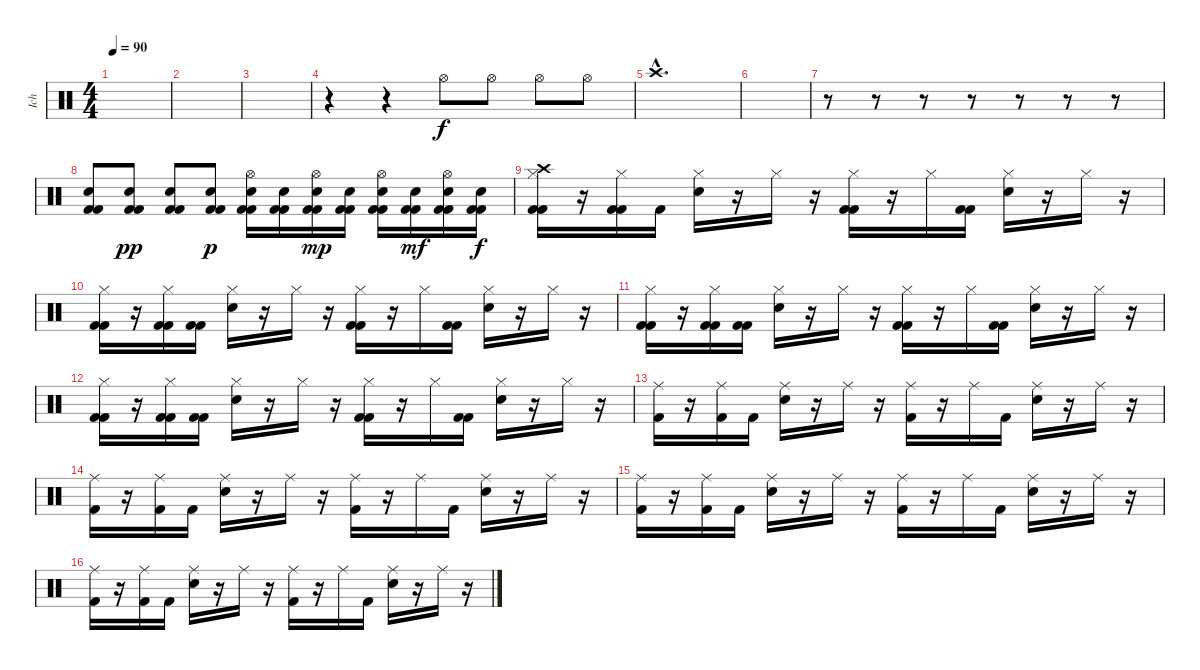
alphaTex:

\track ("Ich" "Ich") {instrument percussion}
\staff {score}
\articulation defaults
\ts (4 4)
\tempo 90
\clef neutral
\ks c
|
|
|
r.4 r.4 "Hi-Hat (open)".8 "Hi-Hat (open)".8 "Hi-Hat (open)".8 "Hi-Hat (open)".8 |
"Crash high (hit)"{hac}.1{d} |
|
r.8 r.8 r.8 r.8 r.8 r.8 r.8 |
("Snare (hit) 2" "Kick (hit) 2" "Kick (hit) 2").8{dy f} ("Snare (hit) 2" "Kick (hit) 2" "Kick (hit) 2").8{dy pp} ("Snare (hit) 2" "Kick (hit) 2" "Kick (hit) 2").8 ("Snare (hit) 2" "Kick (hit) 2" "Kick (hit) 2").8{dy p} ("Hi-Hat (open)" "Snare (hit) 2" "Kick (hit) 2" "Kick (hit) 2").16 ("Snare (hit) 2" "Kick (hit) 2" "Kick (hit) 2").16 ("Hi-Hat (open)" "Snare (hit) 2" "Kick (hit) 2" "Kick (hit) 2").16{dy mp} ("Snare (hit) 2" "Kick (hit) 2" "Kick (hit) 2").16 ("Hi-Hat (open)" "Snare (hit) 2" "Kick (hit) 2" "Kick (hit) 2").16 ("Snare (hit) 2" "Kick (hit) 2" "Kick (hit) 2").16{dy mf} ("Hi-Hat (open)" "Snare (hit) 2" "Kick (hit) 2" "Kick (hit) 2").16 ("Snare (hit) 2" "Kick (hit) 2" "Kick (hit) 2").16{dy f} |
("Hi-Hat (closed)" "Crash high (hit)" "Kick (hit) 2" "Kick (hit) 2").16 r.16 ("Hi-Hat (closed)" "Kick (hit) 2" "Kick (hit) 2").16 "Kick (hit) 2".16 ("Hi-Hat (closed)" "Snare (hit) 2").16 r.16 "Hi-Hat (closed)".16 r.16 ("Hi-Hat (closed)" "Kick (hit) 2" "Kick (hit) 2").16 r.16 "Hi-Hat (closed)".16 ("Kick (hit) 2" "Kick (hit) 2").16 ("Hi-Hat (closed)" "Snare (hit) 2").16 r.16 "Hi-Hat (closed)".16 r.16 |
("Hi-Hat (closed)" "Kick (hit) 2" "Kick (hit) 2").16 r.16 ("Hi-Hat (closed)" "Kick (hit) 2" "Kick (hit) 2").16 ("Kick (hit) 2" "Kick (hit) 2").16 ("Hi-Hat (closed)" "Snare (hit) 2").16 r.16 "Hi-Hat (closed)".16 r.16 ("Hi-Hat (closed)" "Kick (hit) 2" "Kick (hit) 2").16 r.16 "Hi-Hat (closed)".16 ("Kick (hit) 2" "Kick (hit) 2").16 ("Hi-Hat (closed)" "Snare (hit) 2").16 r.16 "Hi-Hat (closed)".16 r.16 |
("Hi-Hat (closed)" "Kick (hit) 2" "Kick (hit) 2").16 r.16 ("Hi-Hat (closed)" "Kick (hit) 2" "Kick (hit) 2").16 ("Kick (hit) 2" "Kick (hit) 2").16 ("Hi-Hat (closed)" "Snare (hit) 2").16 r.16 "Hi-Hat (closed)".16 r.16 ("Hi-Hat (closed)" "Kick (hit) 2" "Kick (hit) 2").16 r.16 "Hi-Hat (closed)".16 ("Kick (hit) 2" "Kick (hit) 2").16 ("Hi-Hat (closed)" "Snare (hit) 2").16 r.16 "Hi-Hat (closed)".16 r.16 |
("Hi-Hat (closed)" "Kick (hit) 2" "Kick (hit) 2").16 r.16 ("Hi-Hat (closed)" "Kick (hit) 2" "Kick (hit) 2").16 ("Kick (hit) 2" "Kick (hit) 2").16 ("Hi-Hat (closed)" "Snare (hit) 2").16 r.16 "Hi-Hat (closed)".16 r.16 ("Hi-Hat (closed)" "Kick (hit) 2" "Kick (hit) 2").16 r.16 "Hi-Hat (closed)".16 ("Kick (hit) 2" "Kick (hit) 2").16 ("Hi-Hat (closed)" "Snare (hit) 2").16 r.16 "Hi-Hat (closed)".16 r.16 |
("Ride (middle)" "Kick (hit) 2").16 r.16 ("Ride (middle)" "Kick (hit) 2").16 "Kick (hit) 2".16 ("Ride (middle)" "Snare (hit) 2").16 r.16 "Ride (middle)".16 r.16 ("Ride (middle)" "Kick (hit) 2").16 r.16 "Ride (middle)".16 "Kick (hit) 2".16 ("Ride (middle)" "Snare (hit) 2").16 r.16 "Ride (middle)".16 r.16 |
("Ride (middle)" "Kick (hit) 2").16 r.16 ("Ride (middle)" "Kick (hit) 2").16 "Kick (hit) 2".16 ("Ride (middle)" "Snare (hit) 2").16 r.16 "Ride (middle)".16 r.16 ("Ride (middle)" "Kick (hit) 2").16 r.16 "Ride (middle)".16 "Kick (hit) 2".16 ("Ride (middle)" "Snare (hit) 2").16 r.16 "Ride (middle)".16 r.16 |
("Ride (middle)" "Kick (hit) 2").16 r.16 ("Ride (middle)" "Kick (hit) 2").16 "Kick (hit) 2".16 ("Ride (middle)" "Snare (hit) 2").16 r.16 "Ride (middle)".16 r.16 ("Ride (middle)" "Kick (hit) 2").16 r.16 "Ride (middle)".16 "Kick (hit) 2".16 ("Ride (middle)" "Snare (hit) 2").16 r.16 "Ride (middle)".16 r.16 |
("Ride (middle)" "Kick (hit) 2").16 r.16 ("Ride (middle)" "Kick (hit) 2").16 "Kick (hit) 2".16 ("Ride (middle)" "Snare (hit) 2").16 r.16 "Ride (middle)".16 r.16 ("Ride (middle)" "Kick (hit) 2").16 r.16 "Ride (middle)".16 "Kick (hit) 2".16 ("Ride (middle)" "Snare (hit) 2").16 r.16 "Ride (middle)".16 r.16
